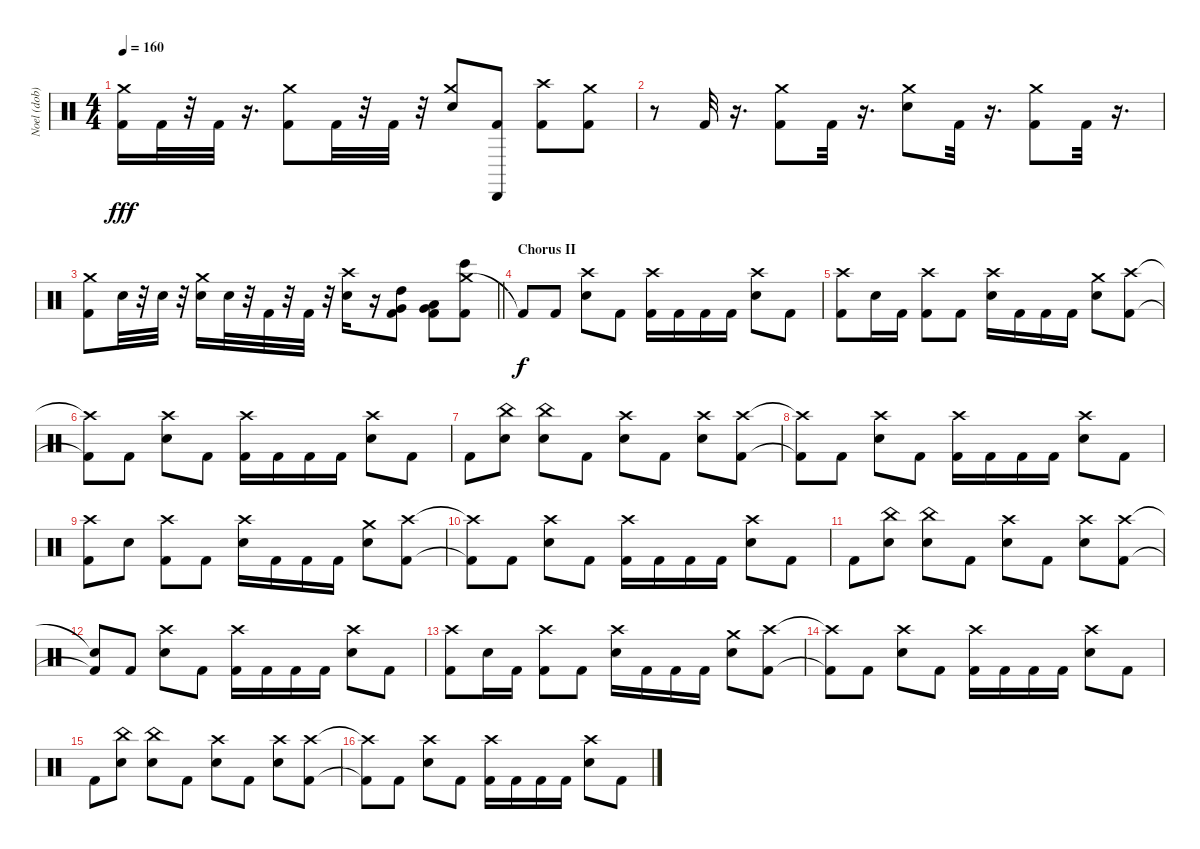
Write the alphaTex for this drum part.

\track ("Noel (dob)" "Noel (dob)") {instrument percussion}
\staff {score}
\articulation defaults
\ts (4 4)
\tempo 160
\clef neutral
\ks c
("Kick (hit) 2" "Crash medium (hit)").16{dy fff} "Kick (hit) 2".32 r.32 "Kick (hit) 2".32 r.16{d} ("Crash medium (hit)" "Kick (hit) 2").8 "Kick (hit) 2".32 r.32 "Kick (hit) 2".32 r.32 ("Snare (hit) 2" "Crash medium (hit)").8 ("Kick (hit) 2" "Cabasa (hit)").8 ("Kick (hit) 2" "Crash high (hit)").8 ("Kick (hit) 2" "Crash medium (hit)").8 |
r.8 "Kick (hit) 2".32 r.16{d} ("Crash medium (hit)" "Kick (hit) 2").8 "Kick (hit) 2".32 r.16{d} ("Snare (hit) 2" "Crash medium (hit)").8 "Kick (hit) 2".32 r.16{d} ("Kick (hit) 2" "Crash medium (hit)").8 "Kick (hit) 2".32 r.16{d} |
\barLineRight lightlight
("Kick (hit) 2" "Crash medium (hit)").8 "Snare (hit) 2".32 r.32 "Snare (hit) 2".32 r.32 ("Crash medium (hit)" "Snare (hit) 2").16 "Snare (hit) 2".32 r.32 "Kick (hit) 2".32 r.32 "Kick (hit) 2".32 r.32 ("Crash high (hit)" "Snare (hit) 2").16 r.16 ("High Tom (hit)" "Kick (hit) 2" "Very Low Tom (hit)").8 ("Kick (hit) 2" "Low Tom (hit)" "Very Low Tom (hit)").8 ("Crash medium (hit)" "Kick (hit) 2" "Bongo High (hit)").8 |
\section ("" "Chorus II")
"Kick (hit) 2"{t}.8{dy f} "Kick (hit) 2".8 ("Crash high (hit)" "Electric Snare (hit)").8 "Kick (hit) 2".8 ("Crash high (hit)" "Kick (hit) 2").16 "Kick (hit) 2".16 "Kick (hit) 2".16 "Kick (hit) 2".16 ("Crash high (hit)" "Electric Snare (hit)").8 "Kick (hit) 2".8 |
("Crash high (hit)" "Kick (hit) 2").8 "Electric Snare (hit)".16 "Kick (hit) 2".16 ("Crash high (hit)" "Kick (hit) 2").8 "Kick (hit) 2".8 ("Crash high (hit)" "Electric Snare (hit)").16 "Kick (hit) 2".16 "Kick (hit) 2".16 "Kick (hit) 2".16 ("Crash medium (hit)" "Electric Snare (hit)").8 ("Crash high (hit)" "Kick (hit) 2").8 |
("Crash high (hit)"{t} "Kick (hit) 2"{t}).8 "Kick (hit) 2".8 ("Crash high (hit)" "Electric Snare (hit)").8 "Kick (hit) 2".8 ("Crash high (hit)" "Kick (hit) 2").16 "Kick (hit) 2".16 "Kick (hit) 2".16 "Kick (hit) 2".16 ("Crash high (hit)" "Electric Snare (hit)").8 "Kick (hit) 2".8 |
"Kick (hit) 2".8 ("China (hit)" "Electric Snare (hit)").8 ("China (hit)" "Electric Snare (hit)").8 "Kick (hit) 2".8 ("Crash high (hit)" "Electric Snare (hit)").8 "Kick (hit) 2".8 ("Crash high (hit)" "Electric Snare (hit)").8 ("Crash high (hit)" "Kick (hit) 2").8 |
("Crash high (hit)"{t} "Kick (hit) 2"{t}).8 "Kick (hit) 2".8 ("Crash high (hit)" "Electric Snare (hit)").8 "Kick (hit) 2".8 ("Crash high (hit)" "Kick (hit) 2").16 "Kick (hit) 2".16 "Kick (hit) 2".16 "Kick (hit) 2".16 ("Crash high (hit)" "Electric Snare (hit)").8 "Kick (hit) 2".8 |
("Crash high (hit)" "Kick (hit) 2").8 "Electric Snare (hit)".8 ("Crash high (hit)" "Kick (hit) 2").8 "Kick (hit) 2".8 ("Crash high (hit)" "Electric Snare (hit)").16 "Kick (hit) 2".16 "Kick (hit) 2".16 "Kick (hit) 2".16 ("Crash medium (hit)" "Electric Snare (hit)").8 ("Crash high (hit)" "Kick (hit) 2").8 |
("Crash high (hit)"{t} "Kick (hit) 2"{t}).8 "Kick (hit) 2".8 ("Crash high (hit)" "Electric Snare (hit)").8 "Kick (hit) 2".8 ("Crash high (hit)" "Kick (hit) 2").16 "Kick (hit) 2".16 "Kick (hit) 2".16 "Kick (hit) 2".16 ("Crash high (hit)" "Electric Snare (hit)").8 "Kick (hit) 2".8 |
"Kick (hit) 2".8 ("Electric Snare (hit)" "China (hit)").8 ("Electric Snare (hit)" "China (hit)").8 "Kick (hit) 2".8 ("Crash high (hit)" "Electric Snare (hit)").8 "Kick (hit) 2".8 ("Crash high (hit)" "Electric Snare (hit)").8 ("Crash high (hit)" "Kick (hit) 2").8 |
("Snare (hit)"{t} "Kick (hit) 2"{t}).8 "Kick (hit) 2".8 ("Crash high (hit)" "Electric Snare (hit)").8 "Kick (hit) 2".8 ("Crash high (hit)" "Kick (hit) 2").16 "Kick (hit) 2".16 "Kick (hit) 2".16 "Kick (hit) 2".16 ("Crash high (hit)" "Electric Snare (hit)").8 "Kick (hit) 2".8 |
("Crash high (hit)" "Kick (hit) 2").8 "Electric Snare (hit)".16 "Kick (hit) 2".16 ("Crash high (hit)" "Kick (hit) 2").8 "Kick (hit) 2".8 ("Crash high (hit)" "Electric Snare (hit)").16 "Kick (hit) 2".16 "Kick (hit) 2".16 "Kick (hit) 2".16 ("Crash medium (hit)" "Electric Snare (hit)").8 ("Crash high (hit)" "Kick (hit) 2").8 |
("Crash high (hit)"{t} "Kick (hit) 2"{t}).8 "Kick (hit) 2".8 ("Crash high (hit)" "Electric Snare (hit)").8 "Kick (hit) 2".8 ("Crash high (hit)" "Kick (hit) 2").16 "Kick (hit) 2".16 "Kick (hit) 2".16 "Kick (hit) 2".16 ("Crash high (hit)" "Electric Snare (hit)").8 "Kick (hit) 2".8 |
"Kick (hit) 2".8 ("China (hit)" "Electric Snare (hit)").8 ("China (hit)" "Electric Snare (hit)").8 "Kick (hit) 2".8 ("Crash high (hit)" "Electric Snare (hit)").8 "Kick (hit) 2".8 ("Crash high (hit)" "Electric Snare (hit)").8 ("Crash high (hit)" "Kick (hit) 2").8 |
("Crash high (hit)"{t} "Kick (hit) 2"{t}).8 "Kick (hit) 2".8 ("Crash high (hit)" "Electric Snare (hit)").8 "Kick (hit) 2".8 ("Crash high (hit)" "Kick (hit) 2").16 "Kick (hit) 2".16 "Kick (hit) 2".16 "Kick (hit) 2".16 ("Crash high (hit)" "Electric Snare (hit)").8 "Kick (hit) 2".8
